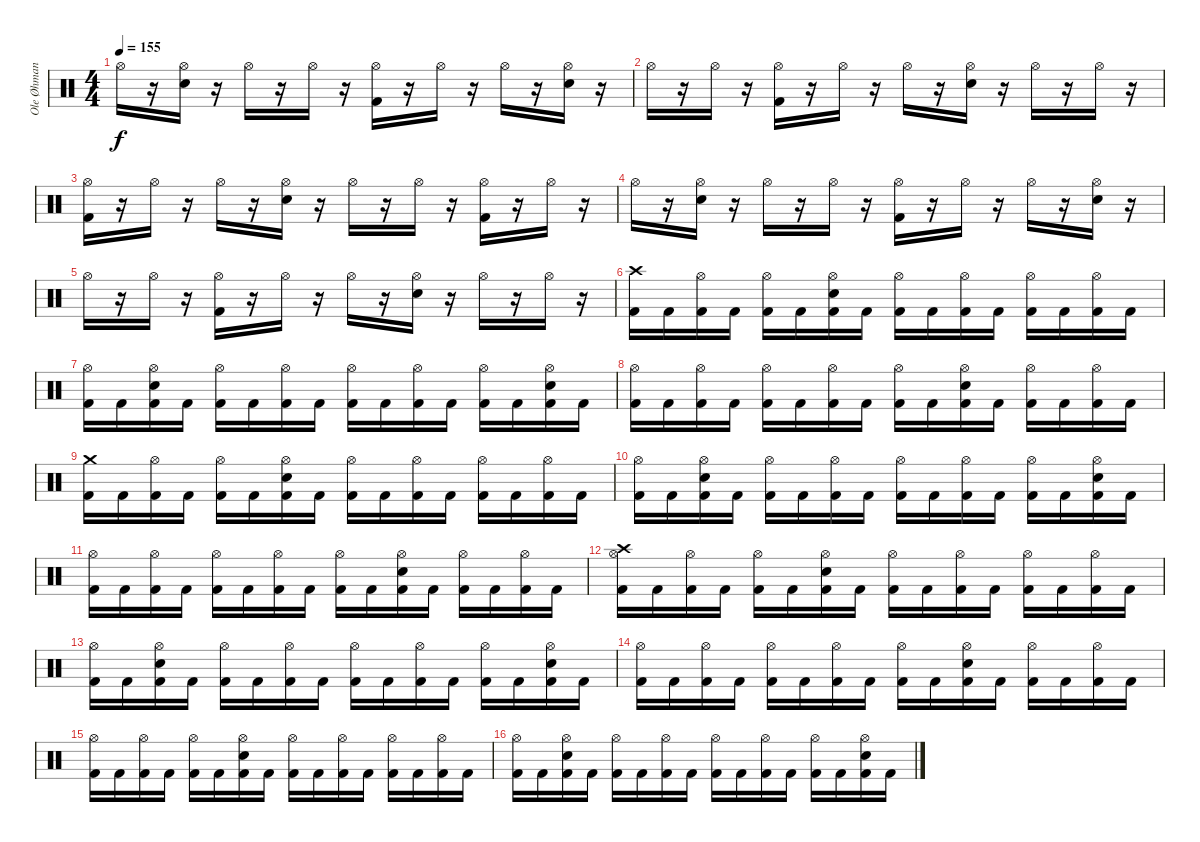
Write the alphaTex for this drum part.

\track ("Ole Øhman (Trommur)" "Ole Øhman ") {instrument percussion}
\staff {score}
\articulation defaults
\ts (4 4)
\tempo 155
\clef neutral
\ks c "Hi-Hat (open)".16{dy f}
r.16 ("Hi-Hat (open)" "Electric Snare (hit)").16 r.16 "Hi-Hat (open)".16 r.16 "Hi-Hat (open)".16 r.16 ("Hi-Hat (open)" "Kick (hit) 2").16 r.16 "Hi-Hat (open)".16 r.16 "Hi-Hat (open)".16 r.16 ("Hi-Hat (open)" "Electric Snare (hit)").16 r.16 |
"Hi-Hat (open)".16 r.16 "Hi-Hat (open)".16 r.16 ("Hi-Hat (open)" "Kick (hit) 2").16 r.16 "Hi-Hat (open)".16 r.16 "Hi-Hat (open)".16 r.16 ("Hi-Hat (open)" "Electric Snare (hit)").16 r.16 "Hi-Hat (open)".16 r.16 "Hi-Hat (open)".16 r.16 |
("Hi-Hat (open)" "Kick (hit) 2").16 r.16 "Hi-Hat (open)".16 r.16 "Hi-Hat (open)".16 r.16 ("Hi-Hat (open)" "Electric Snare (hit)").16 r.16 "Hi-Hat (open)".16 r.16 "Hi-Hat (open)".16 r.16 ("Hi-Hat (open)" "Kick (hit) 2").16 r.16 "Hi-Hat (open)".16 r.16 |
"Hi-Hat (open)".16 r.16 ("Hi-Hat (open)" "Electric Snare (hit)").16 r.16 "Hi-Hat (open)".16 r.16 "Hi-Hat (open)".16 r.16 ("Hi-Hat (open)" "Kick (hit) 2").16 r.16 "Hi-Hat (open)".16 r.16 "Hi-Hat (open)".16 r.16 ("Hi-Hat (open)" "Electric Snare (hit)").16 r.16 |
"Hi-Hat (open)".16 r.16 "Hi-Hat (open)".16 r.16 ("Hi-Hat (open)" "Kick (hit) 2").16 r.16 "Hi-Hat (open)".16 r.16 "Hi-Hat (open)".16 r.16 ("Hi-Hat (open)" "Electric Snare (hit)").16 r.16 "Hi-Hat (open)".16 r.16 "Hi-Hat (open)".16 r.16 |
("Crash high (hit)" "Kick (hit) 2").16 "Kick (hit) 2".16 ("Hi-Hat (open)" "Kick (hit) 2").16 "Kick (hit) 2".16 ("Hi-Hat (open)" "Kick (hit) 2").16 "Kick (hit) 2".16 ("Hi-Hat (open)" "Electric Snare (hit)" "Kick (hit) 2").16 "Kick (hit) 2".16 ("Hi-Hat (open)" "Kick (hit) 2").16 "Kick (hit) 2".16 ("Hi-Hat (open)" "Kick (hit) 2").16 "Kick (hit) 2".16 ("Hi-Hat (open)" "Kick (hit) 2").16 "Kick (hit) 2".16 ("Hi-Hat (open)" "Kick (hit) 2").16 "Kick (hit) 2".16 |
("Hi-Hat (open)" "Kick (hit) 2").16 "Kick (hit) 2".16 ("Hi-Hat (open)" "Electric Snare (hit)" "Kick (hit) 2").16 "Kick (hit) 2".16 ("Hi-Hat (open)" "Kick (hit) 2").16 "Kick (hit) 2".16 ("Hi-Hat (open)" "Kick (hit) 2").16 "Kick (hit) 2".16 ("Hi-Hat (open)" "Kick (hit) 2").16 "Kick (hit) 2".16 ("Hi-Hat (open)" "Kick (hit) 2").16 "Kick (hit) 2".16 ("Hi-Hat (open)" "Kick (hit) 2").16 "Kick (hit) 2".16 ("Hi-Hat (open)" "Electric Snare (hit)" "Kick (hit) 2").16 "Kick (hit) 2".16 |
("Hi-Hat (open)" "Kick (hit) 2").16 "Kick (hit) 2".16 ("Hi-Hat (open)" "Kick (hit) 2").16 "Kick (hit) 2".16 ("Hi-Hat (open)" "Kick (hit) 2").16 "Kick (hit) 2".16 ("Hi-Hat (open)" "Kick (hit) 2").16 "Kick (hit) 2".16 ("Hi-Hat (open)" "Kick (hit) 2").16 "Kick (hit) 2".16 ("Hi-Hat (open)" "Electric Snare (hit)" "Kick (hit) 2").16 "Kick (hit) 2".16 ("Hi-Hat (open)" "Kick (hit) 2").16 "Kick (hit) 2".16 ("Hi-Hat (open)" "Kick (hit) 2").16 "Kick (hit) 2".16 |
("Crash medium (hit)" "Kick (hit) 2").16 "Kick (hit) 2".16 ("Hi-Hat (open)" "Kick (hit) 2").16 "Kick (hit) 2".16 ("Hi-Hat (open)" "Kick (hit) 2").16 "Kick (hit) 2".16 ("Hi-Hat (open)" "Electric Snare (hit)" "Kick (hit) 2").16 "Kick (hit) 2".16 ("Hi-Hat (open)" "Kick (hit) 2").16 "Kick (hit) 2".16 ("Hi-Hat (open)" "Kick (hit) 2").16 "Kick (hit) 2".16 ("Hi-Hat (open)" "Kick (hit) 2").16 "Kick (hit) 2".16 ("Hi-Hat (open)" "Kick (hit) 2").16 "Kick (hit) 2".16 |
("Hi-Hat (open)" "Kick (hit) 2").16 "Kick (hit) 2".16 ("Hi-Hat (open)" "Electric Snare (hit)" "Kick (hit) 2").16 "Kick (hit) 2".16 ("Hi-Hat (open)" "Kick (hit) 2").16 "Kick (hit) 2".16 ("Hi-Hat (open)" "Kick (hit) 2").16 "Kick (hit) 2".16 ("Hi-Hat (open)" "Kick (hit) 2").16 "Kick (hit) 2".16 ("Hi-Hat (open)" "Kick (hit) 2").16 "Kick (hit) 2".16 ("Hi-Hat (open)" "Kick (hit) 2").16 "Kick (hit) 2".16 ("Hi-Hat (open)" "Electric Snare (hit)" "Kick (hit) 2").16 "Kick (hit) 2".16 |
("Hi-Hat (open)" "Kick (hit) 2").16 "Kick (hit) 2".16 ("Hi-Hat (open)" "Kick (hit) 2").16 "Kick (hit) 2".16 ("Hi-Hat (open)" "Kick (hit) 2").16 "Kick (hit) 2".16 ("Hi-Hat (open)" "Kick (hit) 2").16 "Kick (hit) 2".16 ("Hi-Hat (open)" "Kick (hit) 2").16 "Kick (hit) 2".16 ("Hi-Hat (open)" "Electric Snare (hit)" "Kick (hit) 2").16 "Kick (hit) 2".16 ("Hi-Hat (open)" "Kick (hit) 2").16 "Kick (hit) 2".16 ("Hi-Hat (open)" "Kick (hit) 2").16 "Kick (hit) 2".16 |
("Crash high (hit)" "Hi-Hat (open)" "Kick (hit) 2").16 "Kick (hit) 2".16 ("Hi-Hat (open)" "Kick (hit) 2").16 "Kick (hit) 2".16 ("Hi-Hat (open)" "Kick (hit) 2").16 "Kick (hit) 2".16 ("Hi-Hat (open)" "Electric Snare (hit)" "Kick (hit) 2").16 "Kick (hit) 2".16 ("Hi-Hat (open)" "Kick (hit) 2").16 "Kick (hit) 2".16 ("Hi-Hat (open)" "Kick (hit) 2").16 "Kick (hit) 2".16 ("Hi-Hat (open)" "Kick (hit) 2").16 "Kick (hit) 2".16 ("Hi-Hat (open)" "Kick (hit) 2").16 "Kick (hit) 2".16 |
("Hi-Hat (open)" "Kick (hit) 2").16 "Kick (hit) 2".16 ("Hi-Hat (open)" "Electric Snare (hit)" "Kick (hit) 2").16 "Kick (hit) 2".16 ("Hi-Hat (open)" "Kick (hit) 2").16 "Kick (hit) 2".16 ("Hi-Hat (open)" "Kick (hit) 2").16 "Kick (hit) 2".16 ("Hi-Hat (open)" "Kick (hit) 2").16 "Kick (hit) 2".16 ("Hi-Hat (open)" "Kick (hit) 2").16 "Kick (hit) 2".16 ("Hi-Hat (open)" "Kick (hit) 2").16 "Kick (hit) 2".16 ("Hi-Hat (open)" "Electric Snare (hit)" "Kick (hit) 2").16 "Kick (hit) 2".16 |
("Hi-Hat (open)" "Kick (hit) 2").16 "Kick (hit) 2".16 ("Hi-Hat (open)" "Kick (hit) 2").16 "Kick (hit) 2".16 ("Hi-Hat (open)" "Kick (hit) 2").16 "Kick (hit) 2".16 ("Hi-Hat (open)" "Kick (hit) 2").16 "Kick (hit) 2".16 ("Hi-Hat (open)" "Kick (hit) 2").16 "Kick (hit) 2".16 ("Hi-Hat (open)" "Electric Snare (hit)" "Kick (hit) 2").16 "Kick (hit) 2".16 ("Hi-Hat (open)" "Kick (hit) 2").16 "Kick (hit) 2".16 ("Hi-Hat (open)" "Kick (hit) 2").16 "Kick (hit) 2".16 |
("Hi-Hat (open)" "Kick (hit) 2").16 "Kick (hit) 2".16 ("Hi-Hat (open)" "Kick (hit) 2").16 "Kick (hit) 2".16 ("Hi-Hat (open)" "Kick (hit) 2").16 "Kick (hit) 2".16 ("Hi-Hat (open)" "Electric Snare (hit)" "Kick (hit) 2").16 "Kick (hit) 2".16 ("Hi-Hat (open)" "Kick (hit) 2").16 "Kick (hit) 2".16 ("Hi-Hat (open)" "Kick (hit) 2").16 "Kick (hit) 2".16 ("Hi-Hat (open)" "Kick (hit) 2").16 "Kick (hit) 2".16 ("Hi-Hat (open)" "Kick (hit) 2").16 "Kick (hit) 2".16 |
("Hi-Hat (open)" "Kick (hit) 2").16 "Kick (hit) 2".16 ("Hi-Hat (open)" "Electric Snare (hit)" "Kick (hit) 2").16 "Kick (hit) 2".16 ("Hi-Hat (open)" "Kick (hit) 2").16 "Kick (hit) 2".16 ("Hi-Hat (open)" "Kick (hit) 2").16 "Kick (hit) 2".16 ("Hi-Hat (open)" "Kick (hit) 2").16 "Kick (hit) 2".16 ("Hi-Hat (open)" "Kick (hit) 2").16 "Kick (hit) 2".16 ("Hi-Hat (open)" "Kick (hit) 2").16 "Kick (hit) 2".16 ("Hi-Hat (open)" "Electric Snare (hit)" "Kick (hit) 2").16 "Kick (hit) 2".16
